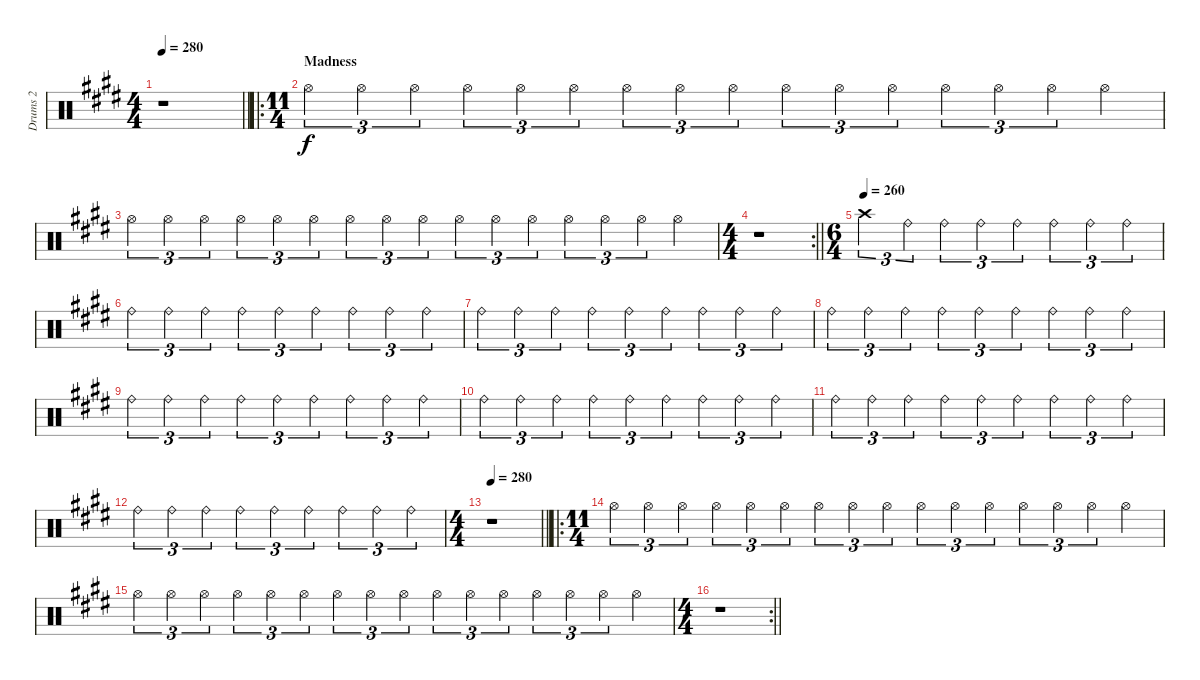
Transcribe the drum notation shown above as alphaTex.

\track ("Drums 2" "Drums 2") {instrument percussion}
\staff {score}
\articulation defaults
\ts (4 4)
\tempo 280
\clef neutral
\barLineRight lightlight
\ks c#minor
r.1{dy f} |
\ro
\ts (11 4)
\section ("" "Madness")
"Hi-Hat (open)".4{tu (3 2)} "Hi-Hat (open)".4{tu (3 2)} "Hi-Hat (open)".4{tu (3 2)} "Hi-Hat (open)".4{tu (3 2)} "Hi-Hat (open)".4{tu (3 2)} "Hi-Hat (open)".4{tu (3 2)} "Hi-Hat (open)".4{tu (3 2)} "Hi-Hat (open)".4{tu (3 2)} "Hi-Hat (open)".4{tu (3 2)} "Hi-Hat (open)".4{tu (3 2)} "Hi-Hat (open)".4{tu (3 2)} "Hi-Hat (open)".4{tu (3 2)} "Hi-Hat (open)".4{tu (3 2)} "Hi-Hat (open)".4{tu (3 2)} "Hi-Hat (open)".4{tu (3 2)} "Hi-Hat (open)".4 |
"Hi-Hat (open)".4{tu (3 2)} "Hi-Hat (open)".4{tu (3 2)} "Hi-Hat (open)".4{tu (3 2)} "Hi-Hat (open)".4{tu (3 2)} "Hi-Hat (open)".4{tu (3 2)} "Hi-Hat (open)".4{tu (3 2)} "Hi-Hat (open)".4{tu (3 2)} "Hi-Hat (open)".4{tu (3 2)} "Hi-Hat (open)".4{tu (3 2)} "Hi-Hat (open)".4{tu (3 2)} "Hi-Hat (open)".4{tu (3 2)} "Hi-Hat (open)".4{tu (3 2)} "Hi-Hat (open)".4{tu (3 2)} "Hi-Hat (open)".4{tu (3 2)} "Hi-Hat (open)".4{tu (3 2)} "Hi-Hat (open)".4 |
\rc 2
\ts (4 4)
\barLineRight lightlight
r.1 |
\ts (6 4)
\tempo (260)
"Crash high (hit)".2{tu (3 2)} "Ride (bell)".4{tu (3 2)} "Ride (bell)".4{tu (3 2)} "Ride (bell)".4{tu (3 2)} "Ride (bell)".4{tu (3 2)} "Ride (bell)".4{tu (3 2)} "Ride (bell)".4{tu (3 2)} "Ride (bell)".4{tu (3 2)} |
"Ride (bell)".4{tu (3 2)} "Ride (bell)".4{tu (3 2)} "Ride (bell)".4{tu (3 2)} "Ride (bell)".4{tu (3 2)} "Ride (bell)".4{tu (3 2)} "Ride (bell)".4{tu (3 2)} "Ride (bell)".4{tu (3 2)} "Ride (bell)".4{tu (3 2)} "Ride (bell)".4{tu (3 2)} |
"Ride (bell)".4{tu (3 2)} "Ride (bell)".4{tu (3 2)} "Ride (bell)".4{tu (3 2)} "Ride (bell)".4{tu (3 2)} "Ride (bell)".4{tu (3 2)} "Ride (bell)".4{tu (3 2)} "Ride (bell)".4{tu (3 2)} "Ride (bell)".4{tu (3 2)} "Ride (bell)".4{tu (3 2)} |
"Ride (bell)".4{tu (3 2)} "Ride (bell)".4{tu (3 2)} "Ride (bell)".4{tu (3 2)} "Ride (bell)".4{tu (3 2)} "Ride (bell)".4{tu (3 2)} "Ride (bell)".4{tu (3 2)} "Ride (bell)".4{tu (3 2)} "Ride (bell)".4{tu (3 2)} "Ride (bell)".4{tu (3 2)} |
"Ride (bell)".4{tu (3 2)} "Ride (bell)".4{tu (3 2)} "Ride (bell)".4{tu (3 2)} "Ride (bell)".4{tu (3 2)} "Ride (bell)".4{tu (3 2)} "Ride (bell)".4{tu (3 2)} "Ride (bell)".4{tu (3 2)} "Ride (bell)".4{tu (3 2)} "Ride (bell)".4{tu (3 2)} |
"Ride (bell)".4{tu (3 2)} "Ride (bell)".4{tu (3 2)} "Ride (bell)".4{tu (3 2)} "Ride (bell)".4{tu (3 2)} "Ride (bell)".4{tu (3 2)} "Ride (bell)".4{tu (3 2)} "Ride (bell)".4{tu (3 2)} "Ride (bell)".4{tu (3 2)} "Ride (bell)".4{tu (3 2)} |
"Ride (bell)".4{tu (3 2)} "Ride (bell)".4{tu (3 2)} "Ride (bell)".4{tu (3 2)} "Ride (bell)".4{tu (3 2)} "Ride (bell)".4{tu (3 2)} "Ride (bell)".4{tu (3 2)} "Ride (bell)".4{tu (3 2)} "Ride (bell)".4{tu (3 2)} "Ride (bell)".4{tu (3 2)} |
"Ride (bell)".4{tu (3 2)} "Ride (bell)".4{tu (3 2)} "Ride (bell)".4{tu (3 2)} "Ride (bell)".4{tu (3 2)} "Ride (bell)".4{tu (3 2)} "Ride (bell)".4{tu (3 2)} "Ride (bell)".4{tu (3 2)} "Ride (bell)".4{tu (3 2)} "Ride (bell)".4{tu (3 2)} |
\ts (4 4)
\tempo 280
\barLineRight lightlight
r.1 |
\ro
\ts (11 4)
"Hi-Hat (open)".4{tu (3 2)} "Hi-Hat (open)".4{tu (3 2)} "Hi-Hat (open)".4{tu (3 2)} "Hi-Hat (open)".4{tu (3 2)} "Hi-Hat (open)".4{tu (3 2)} "Hi-Hat (open)".4{tu (3 2)} "Hi-Hat (open)".4{tu (3 2)} "Hi-Hat (open)".4{tu (3 2)} "Hi-Hat (open)".4{tu (3 2)} "Hi-Hat (open)".4{tu (3 2)} "Hi-Hat (open)".4{tu (3 2)} "Hi-Hat (open)".4{tu (3 2)} "Hi-Hat (open)".4{tu (3 2)} "Hi-Hat (open)".4{tu (3 2)} "Hi-Hat (open)".4{tu (3 2)} "Hi-Hat (open)".4 |
"Hi-Hat (open)".4{tu (3 2)} "Hi-Hat (open)".4{tu (3 2)} "Hi-Hat (open)".4{tu (3 2)} "Hi-Hat (open)".4{tu (3 2)} "Hi-Hat (open)".4{tu (3 2)} "Hi-Hat (open)".4{tu (3 2)} "Hi-Hat (open)".4{tu (3 2)} "Hi-Hat (open)".4{tu (3 2)} "Hi-Hat (open)".4{tu (3 2)} "Hi-Hat (open)".4{tu (3 2)} "Hi-Hat (open)".4{tu (3 2)} "Hi-Hat (open)".4{tu (3 2)} "Hi-Hat (open)".4{tu (3 2)} "Hi-Hat (open)".4{tu (3 2)} "Hi-Hat (open)".4{tu (3 2)} "Hi-Hat (open)".4 |
\rc 2
\ts (4 4)
\barLineRight lightlight
r.1
